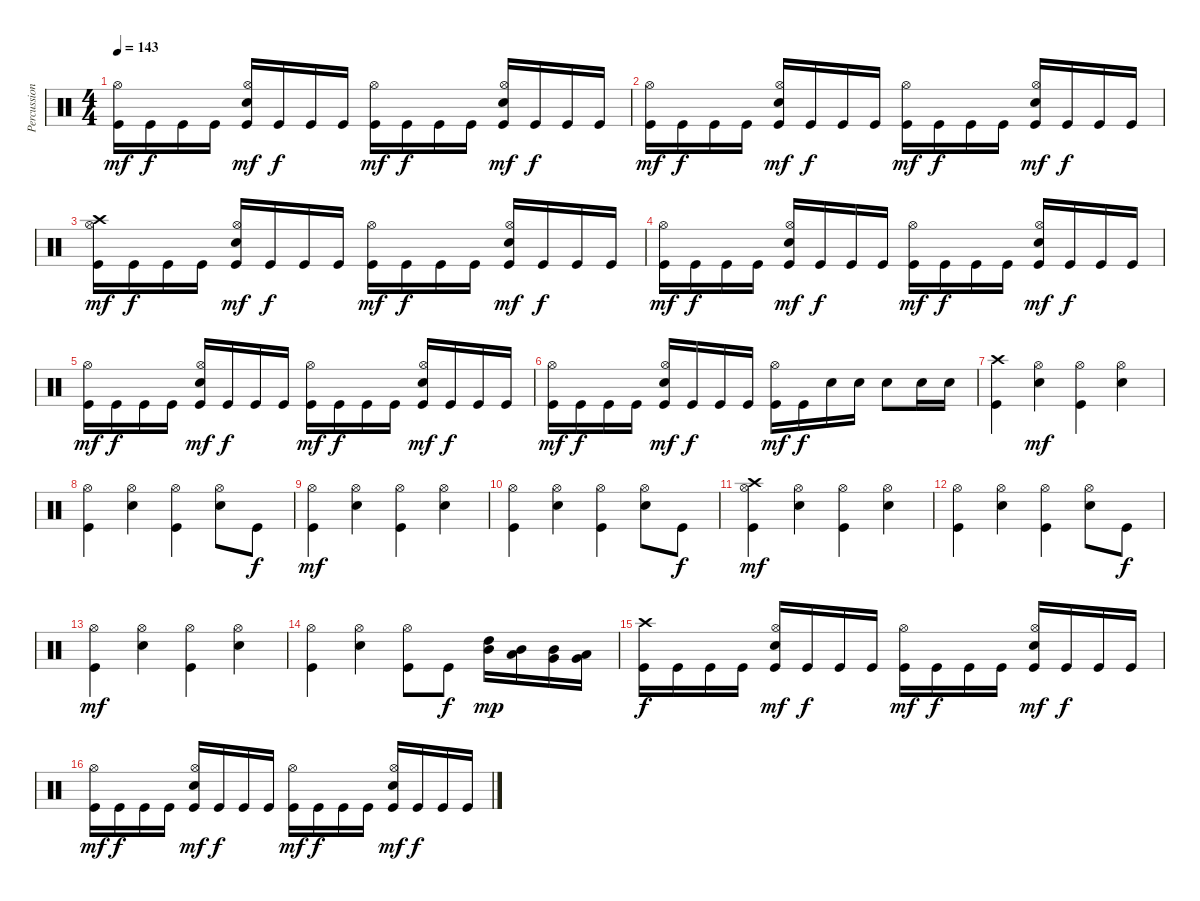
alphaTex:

\track ("Percussions" "Percussion") {instrument percussion}
\staff {score}
\articulation defaults
\ts (4 4)
\tempo 143
\clef neutral
\ks c
("Kick (hit)" "Hi-Hat (open)").16{dy mf} "Kick (hit)".16{dy f} "Kick (hit)".16 "Kick (hit)".16 ("Kick (hit)" "Electric Snare (hit)" "Hi-Hat (open)").16{dy mf} "Kick (hit)".16{dy f} "Kick (hit)".16 "Kick (hit)".16 ("Kick (hit)" "Hi-Hat (open)").16{dy mf} "Kick (hit)".16{dy f} "Kick (hit)".16 "Kick (hit)".16 ("Kick (hit)" "Electric Snare (hit)" "Hi-Hat (open)").16{dy mf} "Kick (hit)".16{dy f} "Kick (hit)".16 "Kick (hit)".16 |
("Kick (hit)" "Hi-Hat (open)").16{dy mf} "Kick (hit)".16{dy f} "Kick (hit)".16 "Kick (hit)".16 ("Kick (hit)" "Electric Snare (hit)" "Hi-Hat (open)").16{dy mf} "Kick (hit)".16{dy f} "Kick (hit)".16 "Kick (hit)".16 ("Kick (hit)" "Hi-Hat (open)").16{dy mf} "Kick (hit)".16{dy f} "Kick (hit)".16 "Kick (hit)".16 ("Kick (hit)" "Electric Snare (hit)" "Hi-Hat (open)").16{dy mf} "Kick (hit)".16{dy f} "Kick (hit)".16 "Kick (hit)".16 |
("Kick (hit)" "Hi-Hat (open)" "Crash high (hit)").16{dy mf} "Kick (hit)".16{dy f} "Kick (hit)".16 "Kick (hit)".16 ("Kick (hit)" "Electric Snare (hit)" "Hi-Hat (open)").16{dy mf} "Kick (hit)".16{dy f} "Kick (hit)".16 "Kick (hit)".16 ("Kick (hit)" "Hi-Hat (open)").16{dy mf} "Kick (hit)".16{dy f} "Kick (hit)".16 "Kick (hit)".16 ("Kick (hit)" "Electric Snare (hit)" "Hi-Hat (open)").16{dy mf} "Kick (hit)".16{dy f} "Kick (hit)".16 "Kick (hit)".16 |
("Kick (hit)" "Hi-Hat (open)").16{dy mf} "Kick (hit)".16{dy f} "Kick (hit)".16 "Kick (hit)".16 ("Kick (hit)" "Electric Snare (hit)" "Hi-Hat (open)").16{dy mf} "Kick (hit)".16{dy f} "Kick (hit)".16 "Kick (hit)".16 ("Kick (hit)" "Hi-Hat (open)").16{dy mf} "Kick (hit)".16{dy f} "Kick (hit)".16 "Kick (hit)".16 ("Kick (hit)" "Electric Snare (hit)" "Hi-Hat (open)").16{dy mf} "Kick (hit)".16{dy f} "Kick (hit)".16 "Kick (hit)".16 |
("Kick (hit)" "Hi-Hat (open)").16{dy mf} "Kick (hit)".16{dy f} "Kick (hit)".16 "Kick (hit)".16 ("Kick (hit)" "Electric Snare (hit)" "Hi-Hat (open)").16{dy mf} "Kick (hit)".16{dy f} "Kick (hit)".16 "Kick (hit)".16 ("Kick (hit)" "Hi-Hat (open)").16{dy mf} "Kick (hit)".16{dy f} "Kick (hit)".16 "Kick (hit)".16 ("Kick (hit)" "Electric Snare (hit)" "Hi-Hat (open)").16{dy mf} "Kick (hit)".16{dy f} "Kick (hit)".16 "Kick (hit)".16 |
("Kick (hit)" "Hi-Hat (open)").16{dy mf} "Kick (hit)".16{dy f} "Kick (hit)".16 "Kick (hit)".16 ("Kick (hit)" "Electric Snare (hit)" "Hi-Hat (open)").16{dy mf} "Kick (hit)".16{dy f} "Kick (hit)".16 "Kick (hit)".16 ("Kick (hit)" "Hi-Hat (open)").16{dy mf} "Kick (hit)".16{dy f} "Electric Snare (hit)".16 "Electric Snare (hit)".16 "Electric Snare (hit)".8 "Electric Snare (hit)".16 "Electric Snare (hit)".16 |
("Kick (hit)" "Crash high (hit)").4 ("Electric Snare (hit)" "Hi-Hat (open)").4{dy mf} ("Kick (hit)" "Hi-Hat (open)").4 ("Electric Snare (hit)" "Hi-Hat (open)").4 |
("Kick (hit)" "Hi-Hat (open)").4 ("Electric Snare (hit)" "Hi-Hat (open)").4 ("Kick (hit)" "Hi-Hat (open)").4 ("Electric Snare (hit)" "Hi-Hat (open)").8 "Kick (hit)".8{dy f} |
("Kick (hit)" "Hi-Hat (open)").4{dy mf} ("Electric Snare (hit)" "Hi-Hat (open)").4 ("Kick (hit)" "Hi-Hat (open)").4 ("Electric Snare (hit)" "Hi-Hat (open)").4 |
("Kick (hit)" "Hi-Hat (open)").4 ("Electric Snare (hit)" "Hi-Hat (open)").4 ("Kick (hit)" "Hi-Hat (open)").4 ("Electric Snare (hit)" "Hi-Hat (open)").8 "Kick (hit)".8{dy f} |
("Kick (hit)" "Hi-Hat (open)" "Crash high (hit)").4{dy mf} ("Electric Snare (hit)" "Hi-Hat (open)").4 ("Kick (hit)" "Hi-Hat (open)").4 ("Electric Snare (hit)" "Hi-Hat (open)").4 |
("Kick (hit)" "Hi-Hat (open)").4 ("Electric Snare (hit)" "Hi-Hat (open)").4 ("Kick (hit)" "Hi-Hat (open)").4 ("Electric Snare (hit)" "Hi-Hat (open)").8 "Kick (hit)".8{dy f} |
("Kick (hit)" "Hi-Hat (open)").4{dy mf} ("Electric Snare (hit)" "Hi-Hat (open)").4 ("Kick (hit)" "Hi-Hat (open)").4 ("Electric Snare (hit)" "Hi-Hat (open)").4 |
("Kick (hit)" "Hi-Hat (open)").4 ("Electric Snare (hit)" "Hi-Hat (open)").4 ("Kick (hit)" "Hi-Hat (open)").8 "Kick (hit)".8{dy f} ("Mid Tom (hit)" "High Tom (hit)").16{dy mp} ("Low Tom (hit)" "Mid Tom (hit)").16 ("Very Low Tom (hit)" "Mid Tom (hit)").16 ("Very Low Tom (hit)" "Low Tom (hit)").16 |
("Kick (hit)" "Crash high (hit)").16{dy f} "Kick (hit)".16 "Kick (hit)".16 "Kick (hit)".16 ("Kick (hit)" "Electric Snare (hit)" "Hi-Hat (open)").16{dy mf} "Kick (hit)".16{dy f} "Kick (hit)".16 "Kick (hit)".16 ("Kick (hit)" "Hi-Hat (open)").16{dy mf} "Kick (hit)".16{dy f} "Kick (hit)".16 "Kick (hit)".16 ("Kick (hit)" "Electric Snare (hit)" "Hi-Hat (open)").16{dy mf} "Kick (hit)".16{dy f} "Kick (hit)".16 "Kick (hit)".16 |
("Kick (hit)" "Hi-Hat (open)").16{dy mf} "Kick (hit)".16{dy f} "Kick (hit)".16 "Kick (hit)".16 ("Kick (hit)" "Electric Snare (hit)" "Hi-Hat (open)").16{dy mf} "Kick (hit)".16{dy f} "Kick (hit)".16 "Kick (hit)".16 ("Kick (hit)" "Hi-Hat (open)").16{dy mf} "Kick (hit)".16{dy f} "Kick (hit)".16 "Kick (hit)".16 ("Kick (hit)" "Electric Snare (hit)" "Hi-Hat (open)").16{dy mf} "Kick (hit)".16{dy f} "Kick (hit)".16 "Kick (hit)".16
